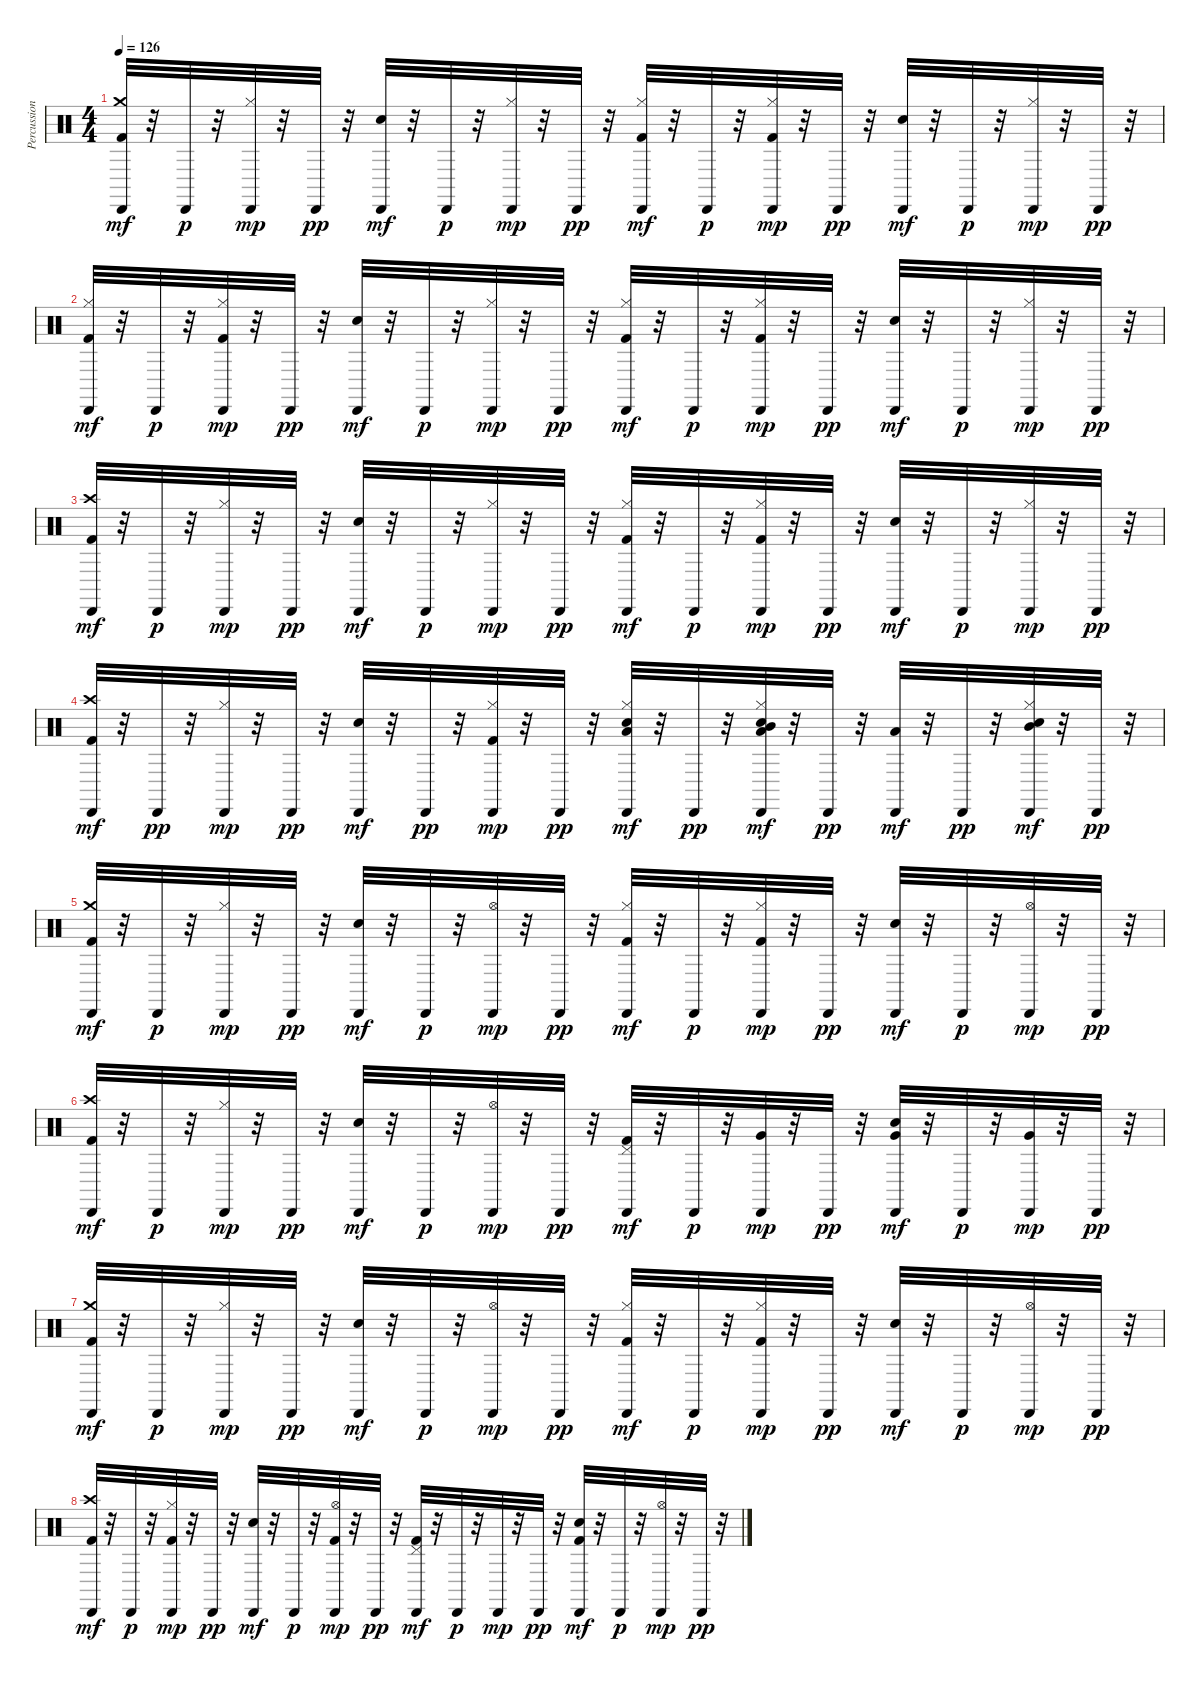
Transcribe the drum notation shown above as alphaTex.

\track ("Percussions" "Percussion") {instrument percussion}
\staff {score}
\articulation defaults
\ts (4 4)
\tempo 126
\clef neutral
\ks c
("Kick (hit) 2" "Crash medium (hit)" "Cabasa (hit)").32{dy mf} r.32 "Cabasa (hit)".32{dy p} r.32 ("Hi-Hat (closed)" "Cabasa (hit)").32{dy mp} r.32 "Cabasa (hit)".32{dy pp} r.32 ("Electric Snare (hit)" "Cabasa (hit)").32{dy mf} r.32 "Cabasa (hit)".32{dy p} r.32 ("Hi-Hat (closed)" "Cabasa (hit)").32{dy mp} r.32 "Cabasa (hit)".32{dy pp} r.32 ("Kick (hit) 2" "Hi-Hat (closed)" "Cabasa (hit)").32{dy mf} r.32 "Cabasa (hit)".32{dy p} r.32 ("Kick (hit) 2" "Hi-Hat (closed)" "Cabasa (hit)").32{dy mp} r.32 "Cabasa (hit)".32{dy pp} r.32 ("Electric Snare (hit)" "Cabasa (hit)").32{dy mf} r.32 "Cabasa (hit)".32{dy p} r.32 ("Hi-Hat (closed)" "Cabasa (hit)").32{dy mp} r.32 "Cabasa (hit)".32{dy pp} r.32 |
("Kick (hit) 2" "Hi-Hat (closed)" "Cabasa (hit)").32{dy mf} r.32 "Cabasa (hit)".32{dy p} r.32 ("Kick (hit) 2" "Hi-Hat (closed)" "Cabasa (hit)").32{dy mp} r.32 "Cabasa (hit)".32{dy pp} r.32 ("Electric Snare (hit)" "Cabasa (hit)").32{dy mf} r.32 "Cabasa (hit)".32{dy p} r.32 ("Hi-Hat (closed)" "Cabasa (hit)").32{dy mp} r.32 "Cabasa (hit)".32{dy pp} r.32 ("Kick (hit) 2" "Hi-Hat (closed)" "Cabasa (hit)").32{dy mf} r.32 "Cabasa (hit)".32{dy p} r.32 ("Kick (hit) 2" "Hi-Hat (closed)" "Cabasa (hit)").32{dy mp} r.32 "Cabasa (hit)".32{dy pp} r.32 ("Electric Snare (hit)" "Cabasa (hit)").32{dy mf} r.32 "Cabasa (hit)".32{dy p} r.32 ("Hi-Hat (closed)" "Cabasa (hit)").32{dy mp} r.32 "Cabasa (hit)".32{dy pp} r.32 |
("Kick (hit) 2" "Crash high (hit)" "Cabasa (hit)").32{dy mf} r.32 "Cabasa (hit)".32{dy p} r.32 ("Hi-Hat (closed)" "Cabasa (hit)").32{dy mp} r.32 "Cabasa (hit)".32{dy pp} r.32 ("Electric Snare (hit)" "Cabasa (hit)").32{dy mf} r.32 "Cabasa (hit)".32{dy p} r.32 ("Hi-Hat (closed)" "Cabasa (hit)").32{dy mp} r.32 "Cabasa (hit)".32{dy pp} r.32 ("Kick (hit) 2" "Hi-Hat (closed)" "Cabasa (hit)").32{dy mf} r.32 "Cabasa (hit)".32{dy p} r.32 ("Kick (hit) 2" "Hi-Hat (closed)" "Cabasa (hit)").32{dy mp} r.32 "Cabasa (hit)".32{dy pp} r.32 ("Electric Snare (hit)" "Cabasa (hit)").32{dy mf} r.32 "Cabasa (hit)".32{dy p} r.32 ("Hi-Hat (closed)" "Cabasa (hit)").32{dy mp} r.32 "Cabasa (hit)".32{dy pp} r.32 |
("Kick (hit) 2" "Crash high (hit)" "Cabasa (hit)").32{dy mf} r.32 "Cabasa (hit)".32{dy pp} r.32 ("Hi-Hat (closed)" "Cabasa (hit)").32{dy mp} r.32 "Cabasa (hit)".32{dy pp} r.32 ("Electric Snare (hit)" "Cabasa (hit)").32{dy mf} r.32 "Cabasa (hit)".32{dy pp} r.32 ("Kick (hit) 2" "Hi-Hat (closed)" "Cabasa (hit)").32{dy mp} r.32 "Cabasa (hit)".32{dy pp} r.32 ("Electric Snare (hit)" "Hi-Hat (closed)" "Cabasa (hit)" "Low Tom (hit)").32{dy mf} r.32 "Cabasa (hit)".32{dy pp} r.32 ("Electric Snare (hit)" "Hi-Hat (closed)" "Cabasa (hit)" "Low Tom (hit)" "Mid Tom (hit)").32{dy mf} r.32 "Cabasa (hit)".32{dy pp} r.32 ("Low Tom (hit)" "Cabasa (hit)").32{dy mf} r.32 "Cabasa (hit)".32{dy pp} r.32 ("Electric Snare (hit)" "Hi-Hat (closed)" "Cabasa (hit)" "Mid Tom (hit)").32{dy mf} r.32 "Cabasa (hit)".32{dy pp} r.32 |
("Kick (hit) 2" "Crash medium (hit)" "Cabasa (hit)").32{dy mf} r.32 "Cabasa (hit)".32{dy p} r.32 ("Hi-Hat (closed)" "Cabasa (hit)").32{dy mp} r.32 "Cabasa (hit)".32{dy pp} r.32 ("Electric Snare (hit)" "Cabasa (hit)").32{dy mf} r.32 "Cabasa (hit)".32{dy p} r.32 ("Hi-Hat (open)" "Cabasa (hit)").32{dy mp} r.32 "Cabasa (hit)".32{dy pp} r.32 ("Kick (hit) 2" "Hi-Hat (closed)" "Cabasa (hit)").32{dy mf} r.32 "Cabasa (hit)".32{dy p} r.32 ("Kick (hit) 2" "Hi-Hat (closed)" "Cabasa (hit)").32{dy mp} r.32 "Cabasa (hit)".32{dy pp} r.32 ("Electric Snare (hit)" "Cabasa (hit)").32{dy mf} r.32 "Cabasa (hit)".32{dy p} r.32 ("Hi-Hat (open)" "Cabasa (hit)").32{dy mp} r.32 "Cabasa (hit)".32{dy pp} r.32 |
("Kick (hit) 2" "Crash high (hit)" "Cabasa (hit)").32{dy mf} r.32 "Cabasa (hit)".32{dy p} r.32 ("Hi-Hat (closed)" "Cabasa (hit)").32{dy mp} r.32 "Cabasa (hit)".32{dy pp} r.32 ("Electric Snare (hit)" "Cabasa (hit)").32{dy mf} r.32 "Cabasa (hit)".32{dy p} r.32 ("Hi-Hat (open)" "Cabasa (hit)").32{dy mp} r.32 "Cabasa (hit)".32{dy pp} r.32 ("Kick (hit) 2" "Pedal Hi-Hat (hit)" "Cabasa (hit)").32{dy mf} r.32 "Cabasa (hit)".32{dy p} r.32 ("Very Low Tom (hit)" "Cabasa (hit)").32{dy mp} r.32 "Cabasa (hit)".32{dy pp} r.32 ("Electric Snare (hit)" "Very Low Tom (hit)" "Cabasa (hit)").32{dy mf} r.32 "Cabasa (hit)".32{dy p} r.32 ("Very Low Tom (hit)" "Cabasa (hit)").32{dy mp} r.32 "Cabasa (hit)".32{dy pp} r.32 |
("Kick (hit) 2" "Crash medium (hit)" "Cabasa (hit)").32{dy mf} r.32 "Cabasa (hit)".32{dy p} r.32 ("Hi-Hat (closed)" "Cabasa (hit)").32{dy mp} r.32 "Cabasa (hit)".32{dy pp} r.32 ("Electric Snare (hit)" "Cabasa (hit)").32{dy mf} r.32 "Cabasa (hit)".32{dy p} r.32 ("Hi-Hat (open)" "Cabasa (hit)").32{dy mp} r.32 "Cabasa (hit)".32{dy pp} r.32 ("Kick (hit) 2" "Hi-Hat (closed)" "Cabasa (hit)").32{dy mf} r.32 "Cabasa (hit)".32{dy p} r.32 ("Kick (hit) 2" "Hi-Hat (closed)" "Cabasa (hit)").32{dy mp} r.32 "Cabasa (hit)".32{dy pp} r.32 ("Electric Snare (hit)" "Cabasa (hit)").32{dy mf} r.32 "Cabasa (hit)".32{dy p} r.32 ("Hi-Hat (open)" "Cabasa (hit)").32{dy mp} r.32 "Cabasa (hit)".32{dy pp} r.32 |
("Kick (hit) 2" "Crash high (hit)" "Cabasa (hit)").32{dy mf} r.32 "Cabasa (hit)".32{dy p} r.32 ("Kick (hit) 2" "Hi-Hat (closed)" "Cabasa (hit)").32{dy mp} r.32 "Cabasa (hit)".32{dy pp} r.32 ("Electric Snare (hit)" "Cabasa (hit)").32{dy mf} r.32 "Cabasa (hit)".32{dy p} r.32 ("Kick (hit) 2" "Hi-Hat (open)" "Cabasa (hit)").32{dy mp} r.32 "Cabasa (hit)".32{dy pp} r.32 ("Kick (hit) 2" "Pedal Hi-Hat (hit)" "Cabasa (hit)").32{dy mf} r.32 "Cabasa (hit)".32{dy p} r.32 "Cabasa (hit)".32{dy mp} r.32 "Cabasa (hit)".32{dy pp} r.32 ("Kick (hit) 2" "Electric Snare (hit)" "Cabasa (hit)").32{dy mf} r.32 "Cabasa (hit)".32{dy p} r.32 ("Hi-Hat (open)" "Cabasa (hit)").32{dy mp} r.32 "Cabasa (hit)".32{dy pp} r.32
